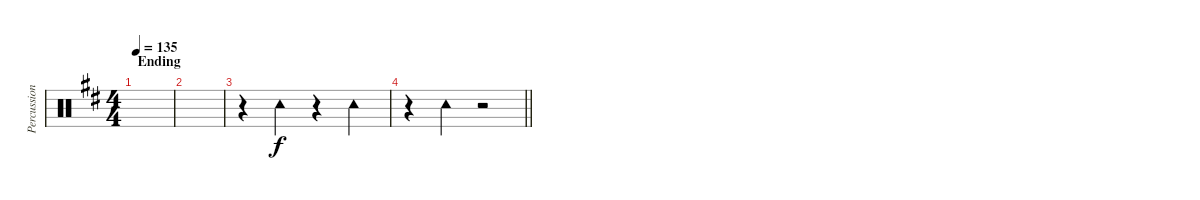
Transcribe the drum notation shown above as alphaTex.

\track ("Percussion" "Percussion") {instrument percussion}
\staff {score}
\articulation defaults
\ts (4 4)
\section ("" "Ending")
\tempo 135
\clef neutral
\ks d
|
|
r.4 "Tambourine (hit)".4 r.4 "Tambourine (hit)".4 |
\barLineRight lightlight
r.4 "Tambourine (hit)".4 r.2
